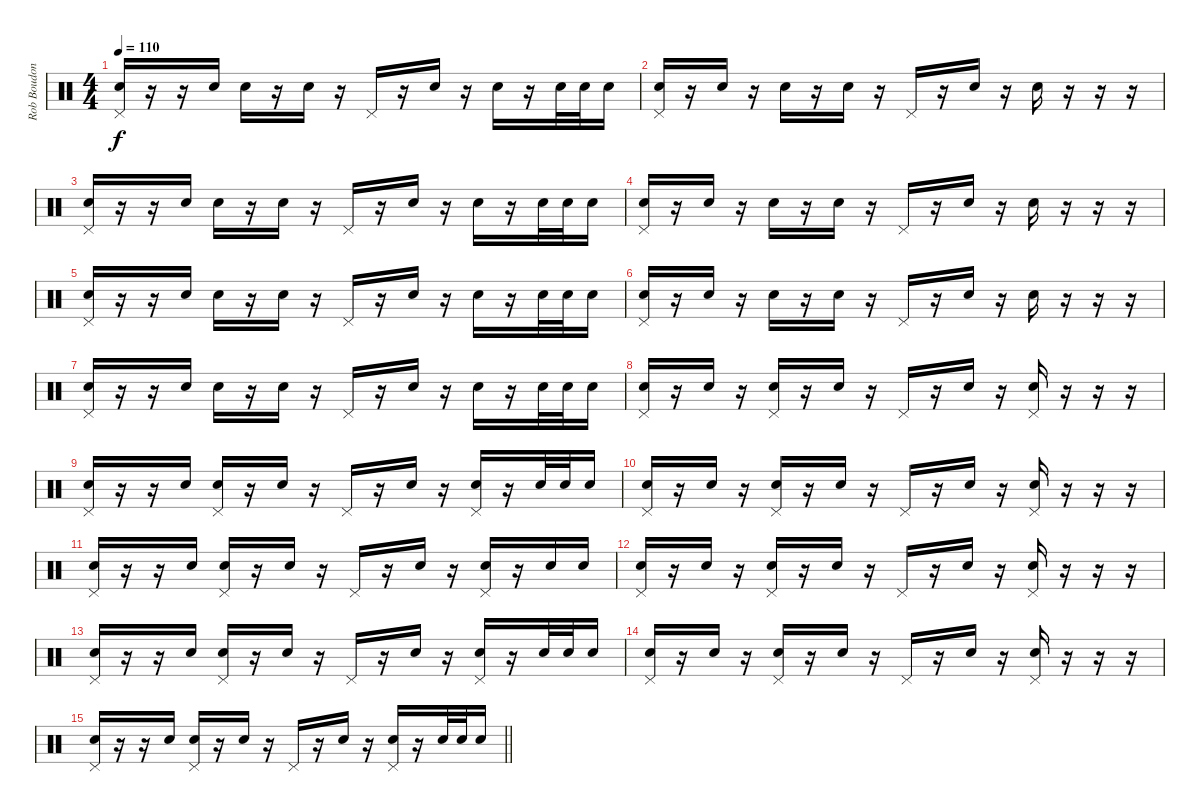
\track ("Rob Boudon [Drums]" "Rob Boudon") {instrument percussion}
\staff {score}
\articulation defaults
\ts (4 4)
\tempo 110
\clef neutral
\ks c
("Pedal Hi-Hat (hit)" "Electric Snare (hit)").16{dy f} r.16 r.16 "Electric Snare (hit)".16 "Electric Snare (hit)".16 r.16 "Electric Snare (hit)".16 r.16 "Pedal Hi-Hat (hit)".16 r.16 "Electric Snare (hit)".16 r.16 "Electric Snare (hit)".16 r.16 "Electric Snare (hit)".32 "Electric Snare (hit)".32 "Electric Snare (hit)".16 |
("Pedal Hi-Hat (hit)" "Electric Snare (hit)").16 r.16 "Electric Snare (hit)".16 r.16 "Electric Snare (hit)".16 r.16 "Electric Snare (hit)".16 r.16 "Pedal Hi-Hat (hit)".16 r.16 "Electric Snare (hit)".16 r.16 "Electric Snare (hit)".16 r.16 r.16 r.16 |
("Pedal Hi-Hat (hit)" "Electric Snare (hit)").16 r.16 r.16 "Electric Snare (hit)".16 "Electric Snare (hit)".16 r.16 "Electric Snare (hit)".16 r.16 "Pedal Hi-Hat (hit)".16 r.16 "Electric Snare (hit)".16 r.16 "Electric Snare (hit)".16 r.16 "Electric Snare (hit)".32 "Electric Snare (hit)".32 "Electric Snare (hit)".16 |
("Pedal Hi-Hat (hit)" "Electric Snare (hit)").16 r.16 "Electric Snare (hit)".16 r.16 "Electric Snare (hit)".16 r.16 "Electric Snare (hit)".16 r.16 "Pedal Hi-Hat (hit)".16 r.16 "Electric Snare (hit)".16 r.16 "Electric Snare (hit)".16 r.16 r.16 r.16 |
("Pedal Hi-Hat (hit)" "Electric Snare (hit)").16 r.16 r.16 "Electric Snare (hit)".16 "Electric Snare (hit)".16 r.16 "Electric Snare (hit)".16 r.16 "Pedal Hi-Hat (hit)".16 r.16 "Electric Snare (hit)".16 r.16 "Electric Snare (hit)".16 r.16 "Electric Snare (hit)".32 "Electric Snare (hit)".32 "Electric Snare (hit)".16 |
("Pedal Hi-Hat (hit)" "Electric Snare (hit)").16 r.16 "Electric Snare (hit)".16 r.16 "Electric Snare (hit)".16 r.16 "Electric Snare (hit)".16 r.16 "Pedal Hi-Hat (hit)".16 r.16 "Electric Snare (hit)".16 r.16 "Electric Snare (hit)".16 r.16 r.16 r.16 |
("Pedal Hi-Hat (hit)" "Electric Snare (hit)").16 r.16 r.16 "Electric Snare (hit)".16 "Electric Snare (hit)".16 r.16 "Electric Snare (hit)".16 r.16 "Pedal Hi-Hat (hit)".16 r.16 "Electric Snare (hit)".16 r.16 "Electric Snare (hit)".16 r.16 "Electric Snare (hit)".32 "Electric Snare (hit)".32 "Electric Snare (hit)".16 |
("Pedal Hi-Hat (hit)" "Electric Snare (hit)").16 r.16 "Electric Snare (hit)".16 r.16 ("Pedal Hi-Hat (hit)" "Electric Snare (hit)").16 r.16 "Electric Snare (hit)".16 r.16 "Pedal Hi-Hat (hit)".16 r.16 "Electric Snare (hit)".16 r.16 ("Pedal Hi-Hat (hit)" "Electric Snare (hit)").16 r.16 r.16 r.16 |
("Pedal Hi-Hat (hit)" "Electric Snare (hit)").16 r.16 r.16 "Electric Snare (hit)".16 ("Pedal Hi-Hat (hit)" "Electric Snare (hit)").16 r.16 "Electric Snare (hit)".16 r.16 "Pedal Hi-Hat (hit)".16 r.16 "Electric Snare (hit)".16 r.16 ("Pedal Hi-Hat (hit)" "Electric Snare (hit)").16 r.16 "Electric Snare (hit)".32 "Electric Snare (hit)".32 "Electric Snare (hit)".16 |
("Pedal Hi-Hat (hit)" "Electric Snare (hit)").16 r.16 "Electric Snare (hit)".16 r.16 ("Pedal Hi-Hat (hit)" "Electric Snare (hit)").16 r.16 "Electric Snare (hit)".16 r.16 "Pedal Hi-Hat (hit)".16 r.16 "Electric Snare (hit)".16 r.16 ("Pedal Hi-Hat (hit)" "Electric Snare (hit)").16 r.16 r.16 r.16 |
("Pedal Hi-Hat (hit)" "Electric Snare (hit)").16 r.16 r.16 "Electric Snare (hit)".16 ("Pedal Hi-Hat (hit)" "Electric Snare (hit)").16 r.16 "Electric Snare (hit)".16 r.16 "Pedal Hi-Hat (hit)".16 r.16 "Electric Snare (hit)".16 r.16 ("Pedal Hi-Hat (hit)" "Electric Snare (hit)").16 r.16 "Electric Snare (hit)".16 "Electric Snare (hit)".16 |
("Pedal Hi-Hat (hit)" "Electric Snare (hit)").16 r.16 "Electric Snare (hit)".16 r.16 ("Pedal Hi-Hat (hit)" "Electric Snare (hit)").16 r.16 "Electric Snare (hit)".16 r.16 "Pedal Hi-Hat (hit)".16 r.16 "Electric Snare (hit)".16 r.16 ("Pedal Hi-Hat (hit)" "Electric Snare (hit)").16 r.16 r.16 r.16 |
("Pedal Hi-Hat (hit)" "Electric Snare (hit)").16 r.16 r.16 "Electric Snare (hit)".16 ("Pedal Hi-Hat (hit)" "Electric Snare (hit)").16 r.16 "Electric Snare (hit)".16 r.16 "Pedal Hi-Hat (hit)".16 r.16 "Electric Snare (hit)".16 r.16 ("Pedal Hi-Hat (hit)" "Electric Snare (hit)").16 r.16 "Electric Snare (hit)".32 "Electric Snare (hit)".32 "Electric Snare (hit)".16 |
("Pedal Hi-Hat (hit)" "Electric Snare (hit)").16 r.16 "Electric Snare (hit)".16 r.16 ("Pedal Hi-Hat (hit)" "Electric Snare (hit)").16 r.16 "Electric Snare (hit)".16 r.16 "Pedal Hi-Hat (hit)".16 r.16 "Electric Snare (hit)".16 r.16 ("Pedal Hi-Hat (hit)" "Electric Snare (hit)").16 r.16 r.16 r.16 |
\barLineRight lightlight
("Pedal Hi-Hat (hit)" "Electric Snare (hit)").16 r.16 r.16 "Electric Snare (hit)".16 ("Pedal Hi-Hat (hit)" "Electric Snare (hit)").16 r.16 "Electric Snare (hit)".16 r.16 "Pedal Hi-Hat (hit)".16 r.16 "Electric Snare (hit)".16 r.16 ("Pedal Hi-Hat (hit)" "Electric Snare (hit)").16 r.16 "Electric Snare (hit)".32 "Electric Snare (hit)".32 "Electric Snare (hit)".16
